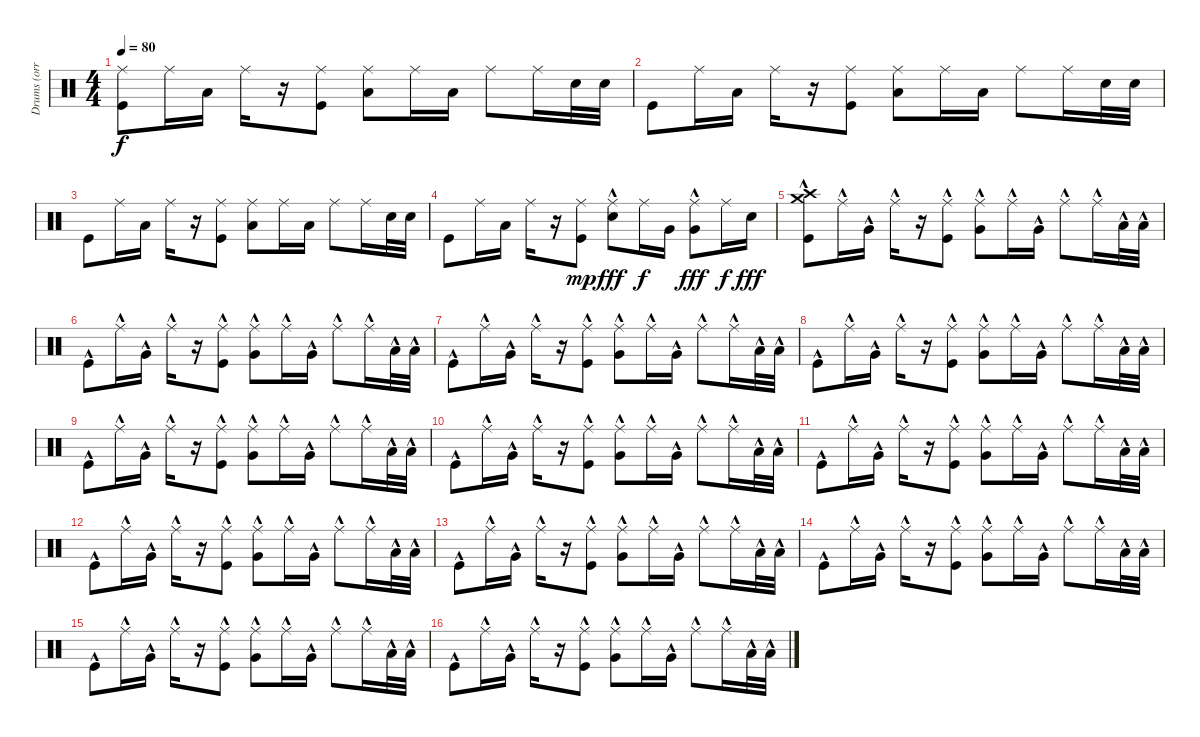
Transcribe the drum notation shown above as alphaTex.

\track ("Drums (orri páll dırason)" "Drums (orr") {instrument percussion}
\staff {score}
\articulation defaults
\ts (4 4)
\tempo 80
\clef neutral
\ks c
("Ride (middle)" "Kick (hit)").8{dy f} "Ride (middle)".16 "Low Tom (hit)".16 "Ride (middle)".16 r.16 ("Ride (middle)" "Kick (hit)").8 ("Ride (middle)" "Low Tom (hit)").8 "Ride (middle)".16 "Low Tom (hit)".16 "Ride (middle)".8 "Ride (middle)".16 "Electric Snare (hit)".32 "Electric Snare (hit)".32 |
"Kick (hit)".8 "Ride (middle)".16 "Low Tom (hit)".16 "Ride (middle)".16 r.16 ("Ride (middle)" "Kick (hit)").8 ("Ride (middle)" "Low Tom (hit)").8 "Ride (middle)".16 "Low Tom (hit)".16 "Ride (middle)".8 "Ride (middle)".16 "Electric Snare (hit)".32 "Electric Snare (hit)".32 |
"Kick (hit)".8 "Ride (middle)".16 "Low Tom (hit)".16 "Ride (middle)".16 r.16 ("Ride (middle)" "Kick (hit)").8 ("Ride (middle)" "Low Tom (hit)").8 "Ride (middle)".16 "Low Tom (hit)".16 "Ride (middle)".8 "Ride (middle)".16 "Electric Snare (hit)".32 "Electric Snare (hit)".32 |
"Kick (hit)".8 "Ride (middle)".16 "Low Tom (hit)".16 "Ride (middle)".16 r.16 ("Ride (middle)" "Kick (hit)").8{dy mp} ("Ride (middle)" "Electric Snare (hit)"{hac}).8{dy fff} "Ride (middle)".16{dy f} "Very Low Tom (hit)".16 ("Ride (middle)" "Very Low Tom (hit)"{hac}).8{dy fff} "Ride (middle)".16{dy f} "Electric Snare (hit)".16{dy fff} |
("Crash medium (hit)"{hac} "Crash high (hit)"{hac} "Kick (hit)"{hac}).8 "Ride (middle)"{hac}.16 "Very Low Tom (hit)"{hac}.16 "Ride (middle)"{hac}.16 r.16 ("Ride (middle)"{hac} "Kick (hit)"{hac}).8 ("Ride (middle)"{hac} "Very Low Tom (hit)"{hac}).8 "Ride (middle)"{hac}.16 "Very Low Tom (hit)"{hac}.16 "Ride (middle)"{hac}.8 "Ride (middle)"{hac}.16 "Low Tom (hit)"{hac}.32 "Low Tom (hit)"{hac}.32 |
"Kick (hit)"{hac}.8 "Ride (middle)"{hac}.16 "Very Low Tom (hit)"{hac}.16 "Ride (middle)"{hac}.16 r.16 ("Ride (middle)"{hac} "Kick (hit)"{hac}).8 ("Ride (middle)"{hac} "Very Low Tom (hit)"{hac}).8 "Ride (middle)"{hac}.16 "Very Low Tom (hit)"{hac}.16 "Ride (middle)"{hac}.8 "Ride (middle)"{hac}.16 "Low Tom (hit)"{hac}.32 "Low Tom (hit)"{hac}.32 |
"Kick (hit)"{hac}.8 "Ride (middle)"{hac}.16 "Very Low Tom (hit)"{hac}.16 "Ride (middle)"{hac}.16 r.16 ("Ride (middle)"{hac} "Kick (hit)"{hac}).8 ("Ride (middle)"{hac} "Very Low Tom (hit)"{hac}).8 "Ride (middle)"{hac}.16 "Very Low Tom (hit)"{hac}.16 "Ride (middle)"{hac}.8 "Ride (middle)"{hac}.16 "Low Tom (hit)"{hac}.32 "Low Tom (hit)"{hac}.32 |
"Kick (hit)"{hac}.8 "Ride (middle)"{hac}.16 "Very Low Tom (hit)"{hac}.16 "Ride (middle)"{hac}.16 r.16 ("Ride (middle)"{hac} "Kick (hit)"{hac}).8 ("Ride (middle)"{hac} "Very Low Tom (hit)"{hac}).8 "Ride (middle)"{hac}.16 "Very Low Tom (hit)"{hac}.16 "Ride (middle)"{hac}.8 "Ride (middle)"{hac}.16 "Low Tom (hit)"{hac}.32 "Low Tom (hit)"{hac}.32 |
"Kick (hit)"{hac}.8 "Ride (middle)"{hac}.16 "Very Low Tom (hit)"{hac}.16 "Ride (middle)"{hac}.16 r.16 ("Ride (middle)"{hac} "Kick (hit)"{hac}).8 ("Ride (middle)"{hac} "Very Low Tom (hit)"{hac}).8 "Ride (middle)"{hac}.16 "Very Low Tom (hit)"{hac}.16 "Ride (middle)"{hac}.8 "Ride (middle)"{hac}.16 "Low Tom (hit)"{hac}.32 "Low Tom (hit)"{hac}.32 |
"Kick (hit)"{hac}.8 "Ride (middle)"{hac}.16 "Very Low Tom (hit)"{hac}.16 "Ride (middle)"{hac}.16 r.16 ("Ride (middle)"{hac} "Kick (hit)"{hac}).8 ("Ride (middle)"{hac} "Very Low Tom (hit)"{hac}).8 "Ride (middle)"{hac}.16 "Very Low Tom (hit)"{hac}.16 "Ride (middle)"{hac}.8 "Ride (middle)"{hac}.16 "Low Tom (hit)"{hac}.32 "Low Tom (hit)"{hac}.32 |
"Kick (hit)"{hac}.8 "Ride (middle)"{hac}.16 "Very Low Tom (hit)"{hac}.16 "Ride (middle)"{hac}.16 r.16 ("Ride (middle)"{hac} "Kick (hit)"{hac}).8 ("Ride (middle)"{hac} "Very Low Tom (hit)"{hac}).8 "Ride (middle)"{hac}.16 "Very Low Tom (hit)"{hac}.16 "Ride (middle)"{hac}.8 "Ride (middle)"{hac}.16 "Low Tom (hit)"{hac}.32 "Low Tom (hit)"{hac}.32 |
"Kick (hit)"{hac}.8 "Ride (middle)"{hac}.16 "Very Low Tom (hit)"{hac}.16 "Ride (middle)"{hac}.16 r.16 ("Ride (middle)"{hac} "Kick (hit)"{hac}).8 ("Ride (middle)"{hac} "Very Low Tom (hit)"{hac}).8 "Ride (middle)"{hac}.16 "Very Low Tom (hit)"{hac}.16 "Ride (middle)"{hac}.8 "Ride (middle)"{hac}.16 "Low Tom (hit)"{hac}.32 "Low Tom (hit)"{hac}.32 |
"Kick (hit)"{hac}.8 "Ride (middle)"{hac}.16 "Very Low Tom (hit)"{hac}.16 "Ride (middle)"{hac}.16 r.16 ("Ride (middle)"{hac} "Kick (hit)"{hac}).8 ("Ride (middle)"{hac} "Very Low Tom (hit)"{hac}).8 "Ride (middle)"{hac}.16 "Very Low Tom (hit)"{hac}.16 "Ride (middle)"{hac}.8 "Ride (middle)"{hac}.16 "Low Tom (hit)"{hac}.32 "Low Tom (hit)"{hac}.32 |
"Kick (hit)"{hac}.8 "Ride (middle)"{hac}.16 "Very Low Tom (hit)"{hac}.16 "Ride (middle)"{hac}.16 r.16 ("Ride (middle)"{hac} "Kick (hit)"{hac}).8 ("Ride (middle)"{hac} "Very Low Tom (hit)"{hac}).8 "Ride (middle)"{hac}.16 "Very Low Tom (hit)"{hac}.16 "Ride (middle)"{hac}.8 "Ride (middle)"{hac}.16 "Low Tom (hit)"{hac}.32 "Low Tom (hit)"{hac}.32 |
"Kick (hit)"{hac}.8 "Ride (middle)"{hac}.16 "Very Low Tom (hit)"{hac}.16 "Ride (middle)"{hac}.16 r.16 ("Ride (middle)"{hac} "Kick (hit)"{hac}).8 ("Ride (middle)"{hac} "Very Low Tom (hit)"{hac}).8 "Ride (middle)"{hac}.16 "Very Low Tom (hit)"{hac}.16 "Ride (middle)"{hac}.8 "Ride (middle)"{hac}.16 "Low Tom (hit)"{hac}.32 "Low Tom (hit)"{hac}.32 |
"Kick (hit)"{hac}.8 "Ride (middle)"{hac}.16 "Very Low Tom (hit)"{hac}.16 "Ride (middle)"{hac}.16 r.16 ("Ride (middle)"{hac} "Kick (hit)"{hac}).8 ("Ride (middle)"{hac} "Very Low Tom (hit)"{hac}).8 "Ride (middle)"{hac}.16 "Very Low Tom (hit)"{hac}.16 "Ride (middle)"{hac}.8 "Ride (middle)"{hac}.16 "Low Tom (hit)"{hac}.32 "Low Tom (hit)"{hac}.32
